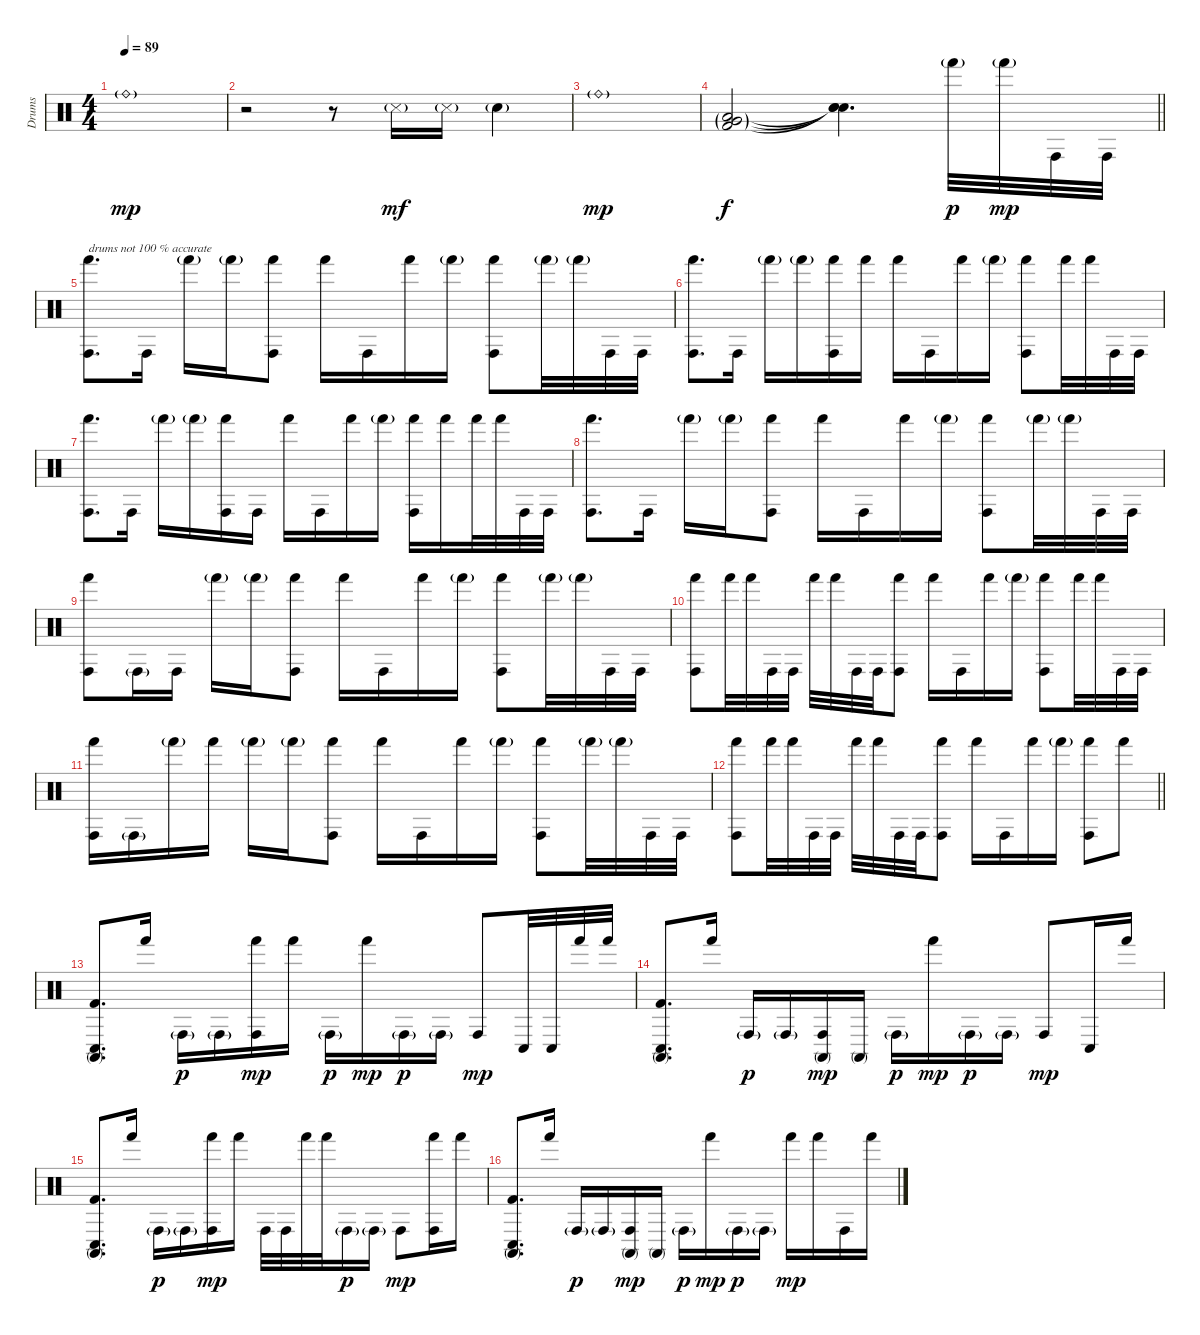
\track ("Drums" "Drums") {instrument percussion}
\staff {score}
\articulation defaults
\ts (4 4)
\tempo 89
\clef neutral
\ks c "Ride (bell)"{g}.1{dy mp}
|
r.2 r.8 "Snare (side stick) 3"{g}.16{dy mf} "Snare (side stick) 3"{g}.16 "Hand Clap (hit)"{g}.4 |
"Ride (bell)"{g}.1{dy mp} |
\barLineRight lightlight
("Very Low Tom (hit)"{g} "Low Floor Tom (hit)"{g} "Kick (hit) 2"{g}).2{dy f} ("Snare (hit)"{t} "Snare (hit)"{t} "Snare (hit)"{t}).4{d} "Hand (hit)"{g}.32{dy p} "Hand (hit)"{g}.32{dy mp} "Conga high (hit)".32 "Conga high (hit)".32 |
\section ("" "")
("Hand (hit)" "Conga high (hit)").8{d txt "drums not 100 % accurate"} "Conga high (hit)".16 "Hand (hit)"{g}.16 "Hand (hit)"{g}.16 ("Hand (hit)" "Conga high (hit)").8 "Hand (hit)".16 "Conga high (hit)".16 "Hand (hit)".16 "Hand (hit)"{g}.16 ("Hand (hit)" "Conga high (hit)").8 "Hand (hit)"{g}.32 "Hand (hit)"{g}.32 "Conga high (hit)".32 "Conga high (hit)".32 |
("Hand (hit)" "Conga high (hit)").8{d} "Conga high (hit)".16 "Hand (hit)"{g}.16 "Hand (hit)"{g}.16 ("Hand (hit)" "Conga high (hit)").16 "Hand (hit)".16 "Hand (hit)".16 "Conga high (hit)".16 "Hand (hit)".16 "Hand (hit)"{g}.16 ("Hand (hit)" "Conga high (hit)").8 "Hand (hit)".32 "Hand (hit)".32 "Conga high (hit)".32 "Conga high (hit)".32 |
("Hand (hit)" "Conga high (hit)").8{d} "Conga high (hit)".16 "Hand (hit)"{g}.16 "Hand (hit)"{g}.16 ("Hand (hit)" "Conga high (hit)").16 "Conga high (hit)".16 "Hand (hit)".16 "Conga high (hit)".16 "Hand (hit)".16 "Hand (hit)"{g}.16 ("Hand (hit)" "Conga high (hit)").16 "Hand (hit)".16 "Hand (hit)".32 "Hand (hit)".32 "Conga high (hit)".32 "Conga high (hit)".32 |
("Hand (hit)" "Conga high (hit)").8{d} "Conga high (hit)".16 "Hand (hit)"{g}.16 "Hand (hit)"{g}.16 ("Hand (hit)" "Conga high (hit)").8 "Hand (hit)".16 "Conga high (hit)".16 "Hand (hit)".16 "Hand (hit)"{g}.16 ("Hand (hit)" "Conga high (hit)").8 "Hand (hit)"{g}.32 "Hand (hit)"{g}.32 "Conga high (hit)".32 "Conga high (hit)".32 |
("Hand (hit)" "Conga high (hit)").8 "Conga high (hit)"{g}.16 "Conga high (hit)".16 "Hand (hit)"{g}.16 "Hand (hit)"{g}.16 ("Hand (hit)" "Conga high (hit)").8 "Hand (hit)".16 "Conga high (hit)".16 "Hand (hit)".16 "Hand (hit)"{g}.16 ("Hand (hit)" "Conga high (hit)").8 "Hand (hit)"{g}.32 "Hand (hit)"{g}.32 "Conga high (hit)".32 "Conga high (hit)".32 |
("Hand (hit)" "Conga high (hit)").8 "Hand (hit)".32 "Hand (hit)".32 "Conga high (hit)".32 "Conga high (hit)".32 "Hand (hit)".32 "Hand (hit)".32 "Conga high (hit)".32 "Conga high (hit)".32 ("Hand (hit)" "Conga high (hit)").8 "Hand (hit)".16 "Conga high (hit)".16 "Hand (hit)".16 "Hand (hit)"{g}.16 ("Hand (hit)" "Conga high (hit)").8 "Hand (hit)".32 "Hand (hit)".32 "Conga high (hit)".32 "Conga high (hit)".32 |
("Hand (hit)" "Conga high (hit)").16 "Conga high (hit)"{g}.16 "Hand (hit)"{g}.16 "Hand (hit)".16 "Hand (hit)"{g}.16 "Hand (hit)"{g}.16 ("Hand (hit)" "Conga high (hit)").8 "Hand (hit)".16{volume 7} "Conga high (hit)".16 "Hand (hit)".16 "Hand (hit)"{g}.16 ("Hand (hit)" "Conga high (hit)").8 "Hand (hit)"{g}.32 "Hand (hit)"{g}.32 "Conga high (hit)".32 "Conga high (hit)".32 |
\barLineRight lightlight
("Hand (hit)" "Conga high (hit)").8{volume 14} "Hand (hit)".32 "Hand (hit)".32 "Conga high (hit)".32 "Conga high (hit)".32 "Hand (hit)".32 "Hand (hit)".32 "Conga high (hit)".32 "Conga high (hit)".32 ("Hand (hit)" "Conga high (hit)").8 "Hand (hit)".16 "Conga high (hit)".16 "Hand (hit)".16 "Hand (hit)"{g}.16 ("Hand (hit)" "Conga high (hit)").8 "Hand (hit)".8 |
\section ("" "")
("Conga high (mute)" "Conga low (hit)" "Kick (hit) 2").8{d} "Hand (hit)".16 "Conga high (hit)"{g}.16{dy p} "Conga high (hit)"{g}.16 ("Hand (hit)" "Conga high (hit)").16{dy mp} "Hand (hit)".16 "Conga high (hit)"{g}.16{dy p} "Hand (hit)".16{dy mp} "Conga high (hit)"{g}.16{dy p} "Conga high (hit)"{g}.16 "Conga high (hit)".8{dy mp} "Conga low (hit)".32 "Conga low (hit)".32 "Hand (hit)".32 "Hand (hit)".32 |
("Conga high (mute)" "Conga low (hit)" "Kick (hit) 2").8{d} "Hand (hit)".16 "Conga high (hit)"{g}.16{dy p} "Conga high (hit)"{g}.16 ("Conga high (mute)" "Conga high (hit)").16{dy mp} "Conga high (mute)".16 "Conga high (hit)"{g}.16{dy p} "Hand (hit)".16{dy mp} "Conga high (hit)"{g}.16{dy p} "Conga high (hit)"{g}.16 "Conga high (hit)".8{dy mp} "Conga low (hit)".16 "Hand (hit)".16 |
("Conga high (mute)" "Conga low (hit)" "Kick (hit) 2").8{d} "Hand (hit)".16 "Conga high (hit)"{g}.16{dy p} "Conga high (hit)"{g}.16 ("Hand (hit)" "Conga high (hit)").16{dy mp} "Hand (hit)".16 "Conga high (hit)".32 "Conga high (hit)".32 "Hand (hit)".32 "Hand (hit)".32 "Conga high (hit)"{g}.16{dy p} "Conga high (hit)"{g}.16 "Conga high (hit)".8{dy mp} ("Hand (hit)" "Conga high (hit)").16 "Hand (hit)".16 |
("Conga high (mute)" "Conga low (hit)" "Kick (hit) 2").8{d} "Hand (hit)".16 "Conga high (hit)"{g}.16{dy p} "Conga high (hit)"{g}.16 ("Conga high (mute)" "Conga high (hit)").16{dy mp} "Conga high (mute)".16 "Conga high (hit)"{g}.16{dy p} "Hand (hit)".16{dy mp} "Conga high (hit)"{g}.16{dy p} "Conga high (hit)"{g}.16 "Hand (hit)".16{dy mp} "Hand (hit)".16 "Conga high (hit)".16 "Hand (hit)".16
